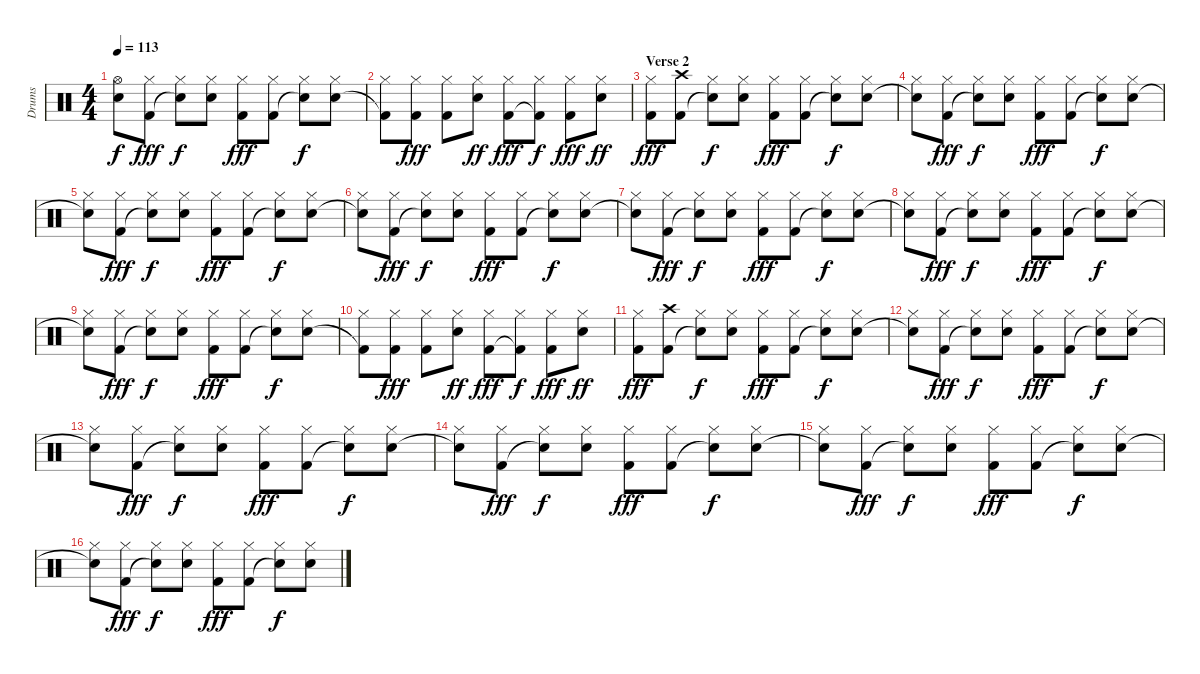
\track ("Drums" "Drums") {instrument percussion}
\staff {score}
\articulation defaults
\ts (4 4)
\tempo 113
\clef neutral
\ks c
("Snare (hit)"{t} "Hi-Hat (open)").8{dy f} ("Kick (hit) 2" "Hi-Hat (closed)").8{dy fff} ("Snare (hit)"{t} "Hi-Hat (closed)").8{dy f} ("Snare (hit) 2" "Hi-Hat (closed)").8 ("Kick (hit) 2" "Hi-Hat (closed)").8{dy fff} ("Kick (hit) 2" "Hi-Hat (closed)").8 ("Snare (hit)"{t} "Hi-Hat (closed)").8{dy f} ("Snare (hit) 2" "Hi-Hat (closed)").8 |
("Kick (hit) 2"{t} "Hi-Hat (closed)").8 ("Kick (hit) 2" "Hi-Hat (closed)").8{dy fff} ("Kick (hit) 2" "Hi-Hat (closed)").8 ("Snare (hit) 2" "Hi-Hat (closed)").8{dy ff} ("Kick (hit) 2" "Hi-Hat (closed)").8{dy fff} ("Kick (hit) 2"{t} "Hi-Hat (closed)").8{dy f} ("Kick (hit) 2" "Hi-Hat (closed)").8{dy fff} ("Snare (hit) 2" "Hi-Hat (closed)").8{dy ff} |
\section ("" "Verse 2")
("Kick (hit) 2" "Hi-Hat (closed)").8{dy fff} ("Kick (hit) 2" "Crash high (hit)").8 ("Snare (hit)"{t} "Hi-Hat (closed)").8{dy f} ("Snare (hit) 2" "Hi-Hat (closed)").8 ("Kick (hit) 2" "Hi-Hat (closed)").8{dy fff} ("Kick (hit) 2" "Hi-Hat (closed)").8 ("Snare (hit)"{t} "Hi-Hat (closed)").8{dy f} ("Snare (hit) 2" "Hi-Hat (closed)").8 |
("Snare (hit)"{t} "Hi-Hat (closed)").8 ("Kick (hit) 2" "Hi-Hat (closed)").8{dy fff} ("Snare (hit)"{t} "Hi-Hat (closed)").8{dy f} ("Snare (hit) 2" "Hi-Hat (closed)").8 ("Kick (hit) 2" "Hi-Hat (closed)").8{dy fff} ("Kick (hit) 2" "Hi-Hat (closed)").8 ("Snare (hit)"{t} "Hi-Hat (closed)").8{dy f} ("Snare (hit) 2" "Hi-Hat (closed)").8 |
("Snare (hit)"{t} "Hi-Hat (closed)").8 ("Kick (hit) 2" "Hi-Hat (closed)").8{dy fff} ("Snare (hit)"{t} "Hi-Hat (closed)").8{dy f} ("Snare (hit) 2" "Hi-Hat (closed)").8 ("Kick (hit) 2" "Hi-Hat (closed)").8{dy fff} ("Kick (hit) 2" "Hi-Hat (closed)").8 ("Snare (hit)"{t} "Hi-Hat (closed)").8{dy f} ("Snare (hit) 2" "Hi-Hat (closed)").8 |
("Snare (hit)"{t} "Hi-Hat (closed)").8 ("Kick (hit) 2" "Hi-Hat (closed)").8{dy fff} ("Snare (hit)"{t} "Hi-Hat (closed)").8{dy f} ("Snare (hit) 2" "Hi-Hat (closed)").8 ("Kick (hit) 2" "Hi-Hat (closed)").8{dy fff} ("Kick (hit) 2" "Hi-Hat (closed)").8 ("Snare (hit)"{t} "Hi-Hat (closed)").8{dy f} ("Snare (hit) 2" "Hi-Hat (closed)").8 |
("Snare (hit)"{t} "Hi-Hat (closed)").8 ("Kick (hit) 2" "Hi-Hat (closed)").8{dy fff} ("Snare (hit)"{t} "Hi-Hat (closed)").8{dy f} ("Snare (hit) 2" "Hi-Hat (closed)").8 ("Kick (hit) 2" "Hi-Hat (closed)").8{dy fff} ("Kick (hit) 2" "Hi-Hat (closed)").8 ("Snare (hit)"{t} "Hi-Hat (closed)").8{dy f} ("Snare (hit) 2" "Hi-Hat (closed)").8 |
("Snare (hit)"{t} "Hi-Hat (closed)").8 ("Kick (hit) 2" "Hi-Hat (closed)").8{dy fff} ("Snare (hit)"{t} "Hi-Hat (closed)").8{dy f} ("Snare (hit) 2" "Hi-Hat (closed)").8 ("Kick (hit) 2" "Hi-Hat (closed)").8{dy fff} ("Kick (hit) 2" "Hi-Hat (closed)").8 ("Snare (hit)"{t} "Hi-Hat (closed)").8{dy f} ("Snare (hit) 2" "Hi-Hat (closed)").8 |
("Snare (hit)"{t} "Hi-Hat (closed)").8 ("Kick (hit) 2" "Hi-Hat (closed)").8{dy fff} ("Snare (hit)"{t} "Hi-Hat (closed)").8{dy f} ("Snare (hit) 2" "Hi-Hat (closed)").8 ("Kick (hit) 2" "Hi-Hat (closed)").8{dy fff} ("Kick (hit) 2" "Hi-Hat (closed)").8 ("Snare (hit)"{t} "Hi-Hat (closed)").8{dy f} ("Snare (hit) 2" "Hi-Hat (closed)").8 |
("Kick (hit) 2"{t} "Hi-Hat (closed)").8 ("Kick (hit) 2" "Hi-Hat (closed)").8{dy fff} ("Kick (hit) 2" "Hi-Hat (closed)").8 ("Snare (hit) 2" "Hi-Hat (closed)").8{dy ff} ("Kick (hit) 2" "Hi-Hat (closed)").8{dy fff} ("Kick (hit) 2"{t} "Hi-Hat (closed)").8{dy f} ("Kick (hit) 2" "Hi-Hat (closed)").8{dy fff} ("Snare (hit) 2" "Hi-Hat (closed)").8{dy ff} |
("Kick (hit) 2" "Hi-Hat (closed)").8{dy fff} ("Kick (hit) 2" "Crash high (hit)").8 ("Snare (hit)"{t} "Hi-Hat (closed)").8{dy f} ("Snare (hit) 2" "Hi-Hat (closed)").8 ("Kick (hit) 2" "Hi-Hat (closed)").8{dy fff} ("Kick (hit) 2" "Hi-Hat (closed)").8 ("Snare (hit)"{t} "Hi-Hat (closed)").8{dy f} ("Snare (hit) 2" "Hi-Hat (closed)").8 |
("Snare (hit)"{t} "Hi-Hat (closed)").8 ("Kick (hit) 2" "Hi-Hat (closed)").8{dy fff} ("Snare (hit)"{t} "Hi-Hat (closed)").8{dy f} ("Snare (hit) 2" "Hi-Hat (closed)").8 ("Kick (hit) 2" "Hi-Hat (closed)").8{dy fff} ("Kick (hit) 2" "Hi-Hat (closed)").8 ("Snare (hit)"{t} "Hi-Hat (closed)").8{dy f} ("Snare (hit) 2" "Hi-Hat (closed)").8 |
("Snare (hit)"{t} "Hi-Hat (closed)").8 ("Kick (hit) 2" "Hi-Hat (closed)").8{dy fff} ("Snare (hit)"{t} "Hi-Hat (closed)").8{dy f} ("Snare (hit) 2" "Hi-Hat (closed)").8 ("Kick (hit) 2" "Hi-Hat (closed)").8{dy fff} ("Kick (hit) 2" "Hi-Hat (closed)").8 ("Snare (hit)"{t} "Hi-Hat (closed)").8{dy f} ("Snare (hit) 2" "Hi-Hat (closed)").8 |
("Snare (hit)"{t} "Hi-Hat (closed)").8 ("Kick (hit) 2" "Hi-Hat (closed)").8{dy fff} ("Snare (hit)"{t} "Hi-Hat (closed)").8{dy f} ("Snare (hit) 2" "Hi-Hat (closed)").8 ("Kick (hit) 2" "Hi-Hat (closed)").8{dy fff} ("Kick (hit) 2" "Hi-Hat (closed)").8 ("Snare (hit)"{t} "Hi-Hat (closed)").8{dy f} ("Snare (hit) 2" "Hi-Hat (closed)").8 |
("Snare (hit)"{t} "Hi-Hat (closed)").8 ("Kick (hit) 2" "Hi-Hat (closed)").8{dy fff} ("Snare (hit)"{t} "Hi-Hat (closed)").8{dy f} ("Snare (hit) 2" "Hi-Hat (closed)").8 ("Kick (hit) 2" "Hi-Hat (closed)").8{dy fff} ("Kick (hit) 2" "Hi-Hat (closed)").8 ("Snare (hit)"{t} "Hi-Hat (closed)").8{dy f} ("Snare (hit) 2" "Hi-Hat (closed)").8 |
("Snare (hit)"{t} "Hi-Hat (closed)").8 ("Kick (hit) 2" "Hi-Hat (closed)").8{dy fff} ("Snare (hit)"{t} "Hi-Hat (closed)").8{dy f} ("Snare (hit) 2" "Hi-Hat (closed)").8 ("Kick (hit) 2" "Hi-Hat (closed)").8{dy fff} ("Kick (hit) 2" "Hi-Hat (closed)").8 ("Snare (hit)"{t} "Hi-Hat (closed)").8{dy f} ("Snare (hit) 2" "Hi-Hat (closed)").8
